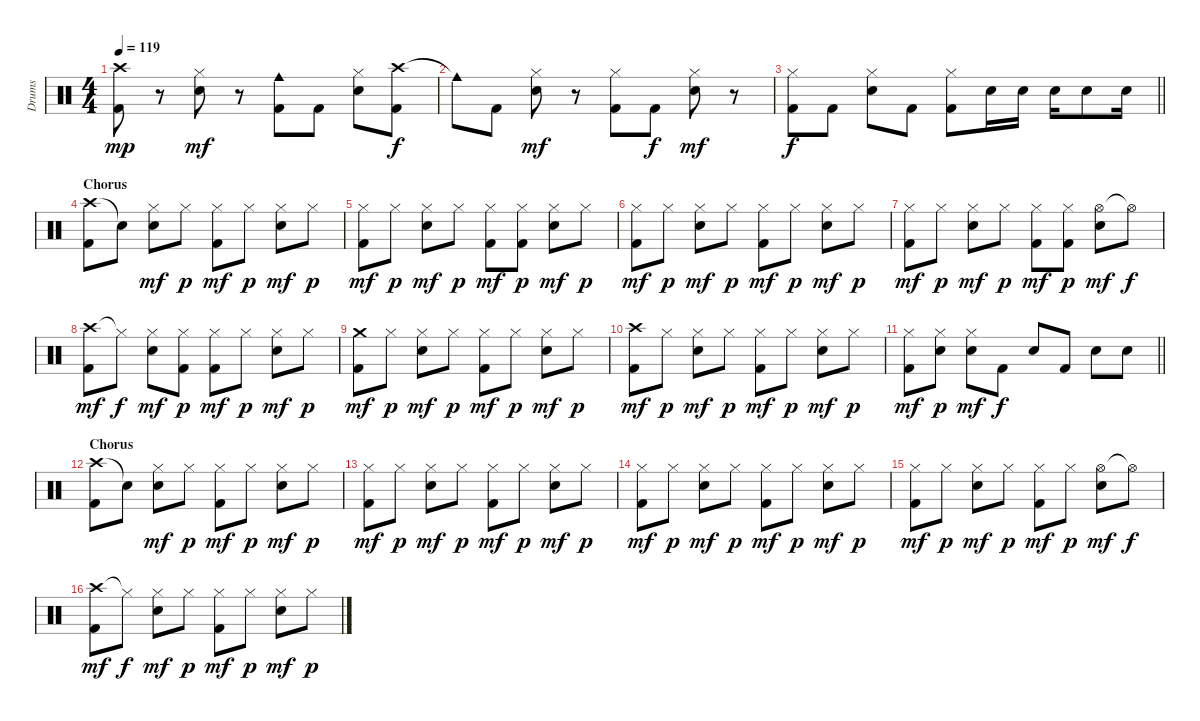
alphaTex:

\track ("Drums" "Drums") {instrument percussion}
\staff {score}
\articulation defaults
\ts (4 4)
\tempo 119
\clef neutral
\ks c
("Crash high (hit)" "Kick (hit) 2").8{dy mp} r.8 ("Hi-Hat (closed)" "Electric Snare (hit)").8{dy mf} r.8 ("Cowbell medium (hit)" "Kick (hit) 2").8 "Kick (hit) 2".8 ("Hi-Hat (closed)" "Electric Snare (hit)").8 ("Crash high (hit)" "Kick (hit) 2").8{dy f} |
"Cowbell medium (hit)"{t}.8 "Kick (hit) 2".8 ("Hi-Hat (closed)" "Electric Snare (hit)").8{dy mf} r.8 ("Hi-Hat (closed)" "Kick (hit) 2").8 "Kick (hit) 2".8{dy f} ("Hi-Hat (closed)" "Electric Snare (hit)").8{dy mf} r.8 |
\barLineRight lightlight
("Hi-Hat (closed)" "Kick (hit) 2").8{dy f} "Kick (hit) 2".8 ("Hi-Hat (closed)" "Electric Snare (hit)").8 "Kick (hit) 2".8 ("Hi-Hat (closed)" "Kick (hit) 2").8 "Electric Snare (hit)".16 "Electric Snare (hit)".16 "Electric Snare (hit)".16 "Electric Snare (hit)".8 "Electric Snare (hit)".16 |
\section ("" "Chorus")
("Crash high (hit)" "Kick (hit) 2").8 "Snare (hit)"{t}.8 ("Hi-Hat (closed)" "Electric Snare (hit)").8{dy mf} "Hi-Hat (closed)".8{dy p} ("Hi-Hat (closed)" "Kick (hit) 2").8{dy mf} "Hi-Hat (closed)".8{dy p} ("Hi-Hat (closed)" "Electric Snare (hit)").8{dy mf} "Hi-Hat (closed)".8{dy p} |
("Hi-Hat (closed)" "Kick (hit) 2").8{dy mf} "Hi-Hat (closed)".8{dy p} ("Hi-Hat (closed)" "Electric Snare (hit)").8{dy mf} "Hi-Hat (closed)".8{dy p} ("Hi-Hat (closed)" "Kick (hit) 2").8{dy mf} ("Hi-Hat (closed)" "Kick (hit) 2").8{dy p} ("Hi-Hat (closed)" "Electric Snare (hit)").8{dy mf} "Hi-Hat (closed)".8{dy p} |
("Hi-Hat (closed)" "Kick (hit) 2").8{dy mf} "Hi-Hat (closed)".8{dy p} ("Hi-Hat (closed)" "Electric Snare (hit)").8{dy mf} "Hi-Hat (closed)".8{dy p} ("Hi-Hat (closed)" "Kick (hit) 2").8{dy mf} "Hi-Hat (closed)".8{dy p} ("Hi-Hat (closed)" "Electric Snare (hit)").8{dy mf} "Hi-Hat (closed)".8{dy p} |
("Hi-Hat (closed)" "Kick (hit) 2").8{dy mf} "Hi-Hat (closed)".8{dy p} ("Hi-Hat (closed)" "Electric Snare (hit)").8{dy mf} "Hi-Hat (closed)".8{dy p} ("Hi-Hat (closed)" "Kick (hit) 2").8{dy mf} ("Hi-Hat (closed)" "Kick (hit) 2").8{dy p} ("Hi-Hat (open)" "Electric Snare (hit)").8{dy mf} "Hi-Hat (open)"{t}.8{dy f} |
("Crash high (hit)" "Kick (hit) 2").8{dy mf} "Hi-Hat (closed)"{t}.8{dy f} ("Hi-Hat (closed)" "Electric Snare (hit)").8{dy mf} ("Hi-Hat (closed)" "Kick (hit) 2").8{dy p} ("Hi-Hat (closed)" "Kick (hit) 2").8{dy mf} "Hi-Hat (closed)".8{dy p} ("Hi-Hat (closed)" "Electric Snare (hit)").8{dy mf} "Hi-Hat (closed)".8{dy p} |
("Crash medium (hit)" "Kick (hit) 2").8{dy mf} "Hi-Hat (closed)".8{dy p} ("Hi-Hat (closed)" "Electric Snare (hit)").8{dy mf} "Hi-Hat (closed)".8{dy p} ("Hi-Hat (closed)" "Kick (hit) 2").8{dy mf} "Hi-Hat (closed)".8{dy p} ("Hi-Hat (closed)" "Electric Snare (hit)").8{dy mf} "Hi-Hat (closed)".8{dy p} |
("Crash high (hit)" "Kick (hit) 2").8{dy mf} "Hi-Hat (closed)".8{dy p} ("Hi-Hat (closed)" "Electric Snare (hit)").8{dy mf} "Hi-Hat (closed)".8{dy p} ("Hi-Hat (closed)" "Kick (hit) 2").8{dy mf} "Hi-Hat (closed)".8{dy p} ("Hi-Hat (closed)" "Electric Snare (hit)").8{dy mf} "Hi-Hat (closed)".8{dy p} |
\barLineRight lightlight
("Hi-Hat (closed)" "Kick (hit) 2").8{dy mf} ("Hi-Hat (closed)" "Electric Snare (hit)").8{dy p} ("Hi-Hat (closed)" "Electric Snare (hit)").8{dy mf} "Kick (hit) 2".8{dy f} "Electric Snare (hit)".8 "Kick (hit) 2".8 "Electric Snare (hit)".8 "Electric Snare (hit)".8 |
\section ("" "Chorus")
("Crash high (hit)" "Kick (hit) 2").8 "Snare (hit)"{t}.8 ("Hi-Hat (closed)" "Electric Snare (hit)").8{dy mf} "Hi-Hat (closed)".8{dy p} ("Hi-Hat (closed)" "Kick (hit) 2").8{dy mf} "Hi-Hat (closed)".8{dy p} ("Hi-Hat (closed)" "Electric Snare (hit)").8{dy mf} "Hi-Hat (closed)".8{dy p} |
("Hi-Hat (closed)" "Kick (hit) 2").8{dy mf} "Hi-Hat (closed)".8{dy p} ("Hi-Hat (closed)" "Electric Snare (hit)").8{dy mf} "Hi-Hat (closed)".8{dy p} ("Hi-Hat (closed)" "Kick (hit) 2").8{dy mf} "Hi-Hat (closed)".8{dy p} ("Hi-Hat (closed)" "Electric Snare (hit)").8{dy mf} "Hi-Hat (closed)".8{dy p} |
("Hi-Hat (closed)" "Kick (hit) 2").8{dy mf} "Hi-Hat (closed)".8{dy p} ("Hi-Hat (closed)" "Electric Snare (hit)").8{dy mf} "Hi-Hat (closed)".8{dy p} ("Hi-Hat (closed)" "Kick (hit) 2").8{dy mf} "Hi-Hat (closed)".8{dy p} ("Hi-Hat (closed)" "Electric Snare (hit)").8{dy mf} "Hi-Hat (closed)".8{dy p} |
("Hi-Hat (closed)" "Kick (hit) 2").8{dy mf} "Hi-Hat (closed)".8{dy p} ("Hi-Hat (closed)" "Electric Snare (hit)").8{dy mf} "Hi-Hat (closed)".8{dy p} ("Hi-Hat (closed)" "Kick (hit) 2").8{dy mf} "Hi-Hat (closed)".8{dy p} ("Hi-Hat (open)" "Electric Snare (hit)").8{dy mf} "Hi-Hat (open)"{t}.8{dy f} |
("Crash high (hit)" "Kick (hit) 2").8{dy mf} "Hi-Hat (closed)"{t}.8{dy f} ("Hi-Hat (closed)" "Electric Snare (hit)").8{dy mf} "Hi-Hat (closed)".8{dy p} ("Hi-Hat (closed)" "Kick (hit) 2").8{dy mf} "Hi-Hat (closed)".8{dy p} ("Hi-Hat (closed)" "Electric Snare (hit)").8{dy mf} "Hi-Hat (closed)".8{dy p}
